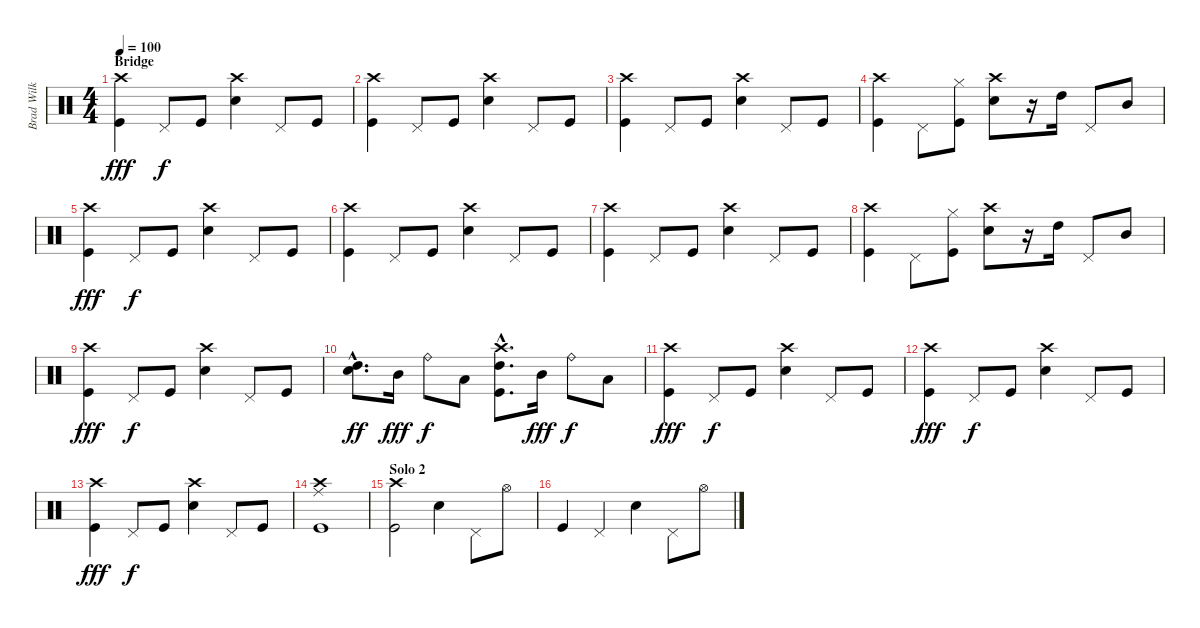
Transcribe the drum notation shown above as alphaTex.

\track ("Brad Wilk - Drums" "Brad Wilk ") {instrument percussion}
\staff {score}
\articulation defaults
\ts (4 4)
\section ("" "Bridge")
\tempo 100
\clef neutral
\ks c
("Crash high (hit)" "Kick (hit)").4{dy fff} "Pedal Hi-Hat (hit)".8{dy f} "Kick (hit)".8 ("Crash high (hit)" "Electric Snare (hit)").4 "Pedal Hi-Hat (hit)".8 "Kick (hit)".8 |
("Crash high (hit)" "Kick (hit)").4 "Pedal Hi-Hat (hit)".8 "Kick (hit)".8 ("Crash high (hit)" "Electric Snare (hit)").4 "Pedal Hi-Hat (hit)".8 "Kick (hit)".8 |
("Crash high (hit)" "Kick (hit)").4 "Pedal Hi-Hat (hit)".8 "Kick (hit)".8 ("Crash high (hit)" "Electric Snare (hit)").4 "Pedal Hi-Hat (hit)".8 "Kick (hit)".8 |
("Crash high (hit)" "Kick (hit)").4 "Pedal Hi-Hat (hit)".8 ("Hi-Hat (closed)" "Kick (hit)").8 ("Crash high (hit)" "Electric Snare (hit)").8 r.16 "High Tom (hit)".16 "Pedal Hi-Hat (hit)".8 "Mid Tom (hit)".8 |
("Crash high (hit)" "Kick (hit)").4{dy fff} "Pedal Hi-Hat (hit)".8{dy f} "Kick (hit)".8 ("Crash high (hit)" "Electric Snare (hit)").4 "Pedal Hi-Hat (hit)".8 "Kick (hit)".8 |
("Crash high (hit)" "Kick (hit)").4 "Pedal Hi-Hat (hit)".8 "Kick (hit)".8 ("Crash high (hit)" "Electric Snare (hit)").4 "Pedal Hi-Hat (hit)".8 "Kick (hit)".8 |
("Crash high (hit)" "Kick (hit)").4 "Pedal Hi-Hat (hit)".8 "Kick (hit)".8 ("Crash high (hit)" "Electric Snare (hit)").4 "Pedal Hi-Hat (hit)".8 "Kick (hit)".8 |
("Crash high (hit)" "Kick (hit)").4 "Pedal Hi-Hat (hit)".8 ("Hi-Hat (closed)" "Kick (hit)").8 ("Crash high (hit)" "Electric Snare (hit)").8 r.16 "High Tom (hit)".16 "Pedal Hi-Hat (hit)".8 "Mid Tom (hit)".8 |
("Crash high (hit)" "Kick (hit)").4{dy fff} "Pedal Hi-Hat (hit)".8{dy f} "Kick (hit)".8 ("Crash high (hit)" "Electric Snare (hit)").4 "Pedal Hi-Hat (hit)".8 "Kick (hit)".8 |
("High Tom (hit)"{hac} "Electric Snare (hit)"{hac}).8{d dy ff} "Mid Tom (hit)".16{dy fff} "Ride (bell)".8{dy f} "Low Tom (hit)".8 ("High Tom (hit)"{hac} "Crash high (hit)"{hac} "Kick (hit)"{hac}).8{d} "Mid Tom (hit)".16{dy fff} "Ride (bell)".8{dy f} "Low Tom (hit)".8 |
("Crash high (hit)" "Kick (hit)").4{dy fff} "Pedal Hi-Hat (hit)".8{dy f} "Kick (hit)".8 ("Crash high (hit)" "Electric Snare (hit)").4 "Pedal Hi-Hat (hit)".8 "Kick (hit)".8 |
("Crash high (hit)" "Kick (hit)").4{dy fff} "Pedal Hi-Hat (hit)".8{dy f} "Kick (hit)".8 ("Crash high (hit)" "Electric Snare (hit)").4 "Pedal Hi-Hat (hit)".8 "Kick (hit)".8 |
("Crash high (hit)" "Kick (hit)").4{dy fff} "Pedal Hi-Hat (hit)".8{dy f} "Kick (hit)".8 ("Crash high (hit)" "Electric Snare (hit)").4 "Pedal Hi-Hat (hit)".8 "Kick (hit)".8 |
("Crash high (hit)" "Ride (middle)" "Kick (hit)").1 |
\section ("" "Solo 2")
("Crash high (hit)" "Kick (hit)").2 "Electric Snare (hit)".4 "Pedal Hi-Hat (hit)".8 "Hi-Hat (open)".8 |
"Kick (hit)".4 "Pedal Hi-Hat (hit)".4 "Electric Snare (hit)".4 "Pedal Hi-Hat (hit)".8 "Hi-Hat (open)".8
